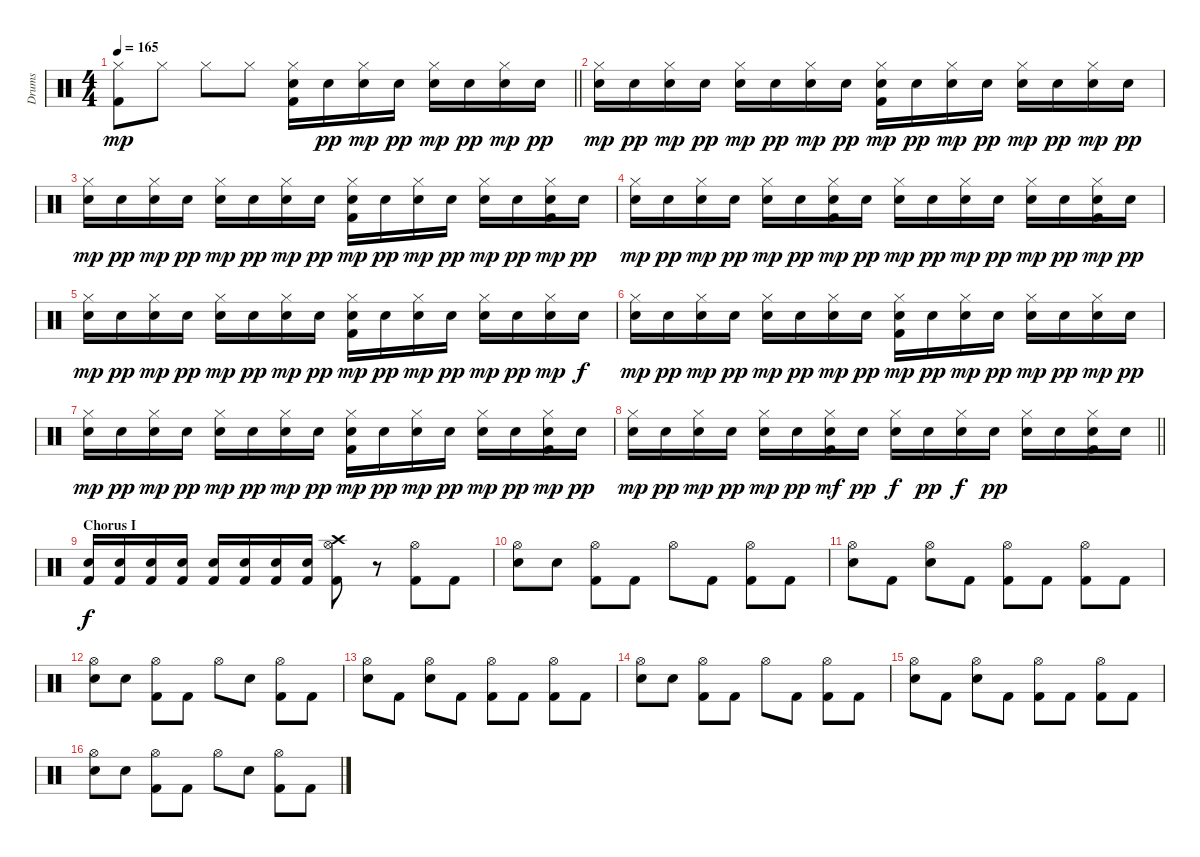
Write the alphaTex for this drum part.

\track ("Drums" "Drums") {instrument percussion}
\staff {score}
\articulation defaults
\ts (4 4)
\tempo 165
\clef neutral
\barLineRight lightlight
\ks c
("Hi-Hat (closed)" "Kick (hit) 2").8{dy mp} "Hi-Hat (closed)".8 "Hi-Hat (closed)".8 "Hi-Hat (closed)".8 ("Kick (hit) 2" "Snare (hit) 2" "Hi-Hat (closed)").16 "Snare (hit) 2".16{dy pp} ("Snare (hit) 2" "Hi-Hat (closed)").16{dy mp} "Snare (hit) 2".16{dy pp} ("Snare (hit) 2" "Hi-Hat (closed)").16{dy mp} "Snare (hit) 2".16{dy pp} ("Snare (hit) 2" "Hi-Hat (closed)").16{dy mp} "Snare (hit) 2".16{dy pp} |
("Electric Snare (hit)" "Hi-Hat (closed)").16{dy mp} "Snare (hit) 2".16{dy pp} ("Snare (hit) 2" "Hi-Hat (closed)").16{dy mp} "Snare (hit) 2".16{dy pp} ("Snare (hit) 2" "Hi-Hat (closed)").16{dy mp} "Snare (hit) 2".16{dy pp} ("Snare (hit) 2" "Hi-Hat (closed)").16{dy mp} "Snare (hit) 2".16{dy pp} ("Kick (hit) 2" "Snare (hit) 2" "Hi-Hat (closed)").16{dy mp} "Snare (hit) 2".16{dy pp} ("Snare (hit) 2" "Hi-Hat (closed)").16{dy mp} "Snare (hit) 2".16{dy pp} ("Snare (hit) 2" "Hi-Hat (closed)").16{dy mp} "Snare (hit) 2".16{dy pp} ("Snare (hit) 2" "Hi-Hat (closed)").16{dy mp} "Snare (hit) 2".16{dy pp} |
("Electric Snare (hit)" "Hi-Hat (closed)").16{dy mp} "Snare (hit) 2".16{dy pp} ("Snare (hit) 2" "Hi-Hat (closed)").16{dy mp} "Snare (hit) 2".16{dy pp} ("Electric Snare (hit)" "Hi-Hat (closed)").16{dy mp} "Snare (hit) 2".16{dy pp} ("Snare (hit) 2" "Hi-Hat (closed)").16{dy mp} "Snare (hit) 2".16{dy pp} ("Kick (hit) 2" "Snare (hit) 2" "Hi-Hat (closed)").16{dy mp} "Snare (hit) 2".16{dy pp} ("Snare (hit) 2" "Hi-Hat (closed)").16{dy mp} "Snare (hit) 2".16{dy pp} ("Snare (hit) 2" "Hi-Hat (closed)").16{dy mp} "Snare (hit) 2".16{dy pp} ("Kick (hit) 2" "Snare (hit) 2" "Hi-Hat (closed)").16{dy mp} "Snare (hit) 2".16{dy pp} |
("Electric Snare (hit)" "Hi-Hat (closed)").16{dy mp} "Snare (hit) 2".16{dy pp} ("Electric Snare (hit)" "Hi-Hat (closed)").16{dy mp} "Snare (hit) 2".16{dy pp} ("Snare (hit) 2" "Hi-Hat (closed)").16{dy mp} "Snare (hit) 2".16{dy pp} ("Kick (hit) 2" "Snare (hit) 2" "Hi-Hat (closed)").16{dy mp} "Snare (hit) 2".16{dy pp} ("Electric Snare (hit)" "Hi-Hat (closed)").16{dy mp} "Snare (hit) 2".16{dy pp} ("Electric Snare (hit)" "Hi-Hat (closed)").16{dy mp} "Snare (hit) 2".16{dy pp} ("Snare (hit) 2" "Hi-Hat (closed)").16{dy mp} "Snare (hit) 2".16{dy pp} ("Kick (hit) 2" "Snare (hit) 2" "Hi-Hat (closed)").16{dy mp} "Snare (hit) 2".16{dy pp} |
("Electric Snare (hit)" "Hi-Hat (closed)").16{dy mp} "Snare (hit) 2".16{dy pp} ("Snare (hit) 2" "Hi-Hat (closed)").16{dy mp} "Snare (hit) 2".16{dy pp} ("Electric Snare (hit)" "Hi-Hat (closed)").16{dy mp} "Snare (hit) 2".16{dy pp} ("Electric Snare (hit)" "Hi-Hat (closed)").16{dy mp} "Snare (hit) 2".16{dy pp} ("Kick (hit) 2" "Snare (hit) 2" "Hi-Hat (closed)").16{dy mp} "Snare (hit) 2".16{dy pp} ("Snare (hit) 2" "Hi-Hat (closed)").16{dy mp} "Snare (hit) 2".16{dy pp} ("Snare (hit) 2" "Hi-Hat (closed)").16{dy mp} "Snare (hit) 2".16{dy pp} ("Electric Snare (hit)" "Hi-Hat (closed)").16{dy mp} "Electric Snare (hit)".16{dy f} |
("Electric Snare (hit)" "Hi-Hat (closed)").16{dy mp} "Snare (hit) 2".16{dy pp} ("Electric Snare (hit)" "Hi-Hat (closed)").16{dy mp} "Snare (hit) 2".16{dy pp} ("Electric Snare (hit)" "Hi-Hat (closed)").16{dy mp} "Snare (hit) 2".16{dy pp} ("Snare (hit) 2" "Hi-Hat (closed)").16{dy mp} "Snare (hit) 2".16{dy pp} ("Kick (hit) 2" "Snare (hit) 2" "Hi-Hat (closed)").16{dy mp} "Snare (hit) 2".16{dy pp} ("Snare (hit) 2" "Hi-Hat (closed)").16{dy mp} "Snare (hit) 2".16{dy pp} ("Snare (hit) 2" "Hi-Hat (closed)").16{dy mp} "Snare (hit) 2".16{dy pp} ("Snare (hit) 2" "Hi-Hat (closed)").16{dy mp} "Snare (hit) 2".16{dy pp} |
("Electric Snare (hit)" "Hi-Hat (closed)").16{dy mp} "Snare (hit) 2".16{dy pp} ("Snare (hit) 2" "Hi-Hat (closed)").16{dy mp} "Snare (hit) 2".16{dy pp} ("Electric Snare (hit)" "Hi-Hat (closed)").16{dy mp} "Snare (hit) 2".16{dy pp} ("Snare (hit) 2" "Hi-Hat (closed)").16{dy mp} "Snare (hit) 2".16{dy pp} ("Kick (hit) 2" "Snare (hit) 2" "Hi-Hat (closed)").16{dy mp} "Snare (hit) 2".16{dy pp} ("Snare (hit) 2" "Hi-Hat (closed)").16{dy mp} "Snare (hit) 2".16{dy pp} ("Snare (hit) 2" "Hi-Hat (closed)").16{dy mp} "Snare (hit) 2".16{dy pp} ("Kick (hit) 2" "Snare (hit) 2" "Hi-Hat (closed)").16{dy mp} "Snare (hit) 2".16{dy pp} |
\barLineRight lightlight
("Electric Snare (hit)" "Hi-Hat (closed)").16{dy mp} "Snare (hit) 2".16{dy pp} ("Electric Snare (hit)" "Hi-Hat (closed)").16{dy mp} "Snare (hit) 2".16{dy pp} ("Snare (hit) 2" "Hi-Hat (closed)").16{dy mp} "Snare (hit) 2".16{dy pp} ("Kick (hit) 2" "Snare (hit) 2" "Hi-Hat (closed)").16{dy mf} "Snare (hit) 2".16{dy pp} ("Electric Snare (hit)" "Hi-Hat (closed)").16{dy f} "Snare (hit) 2".16{dy pp} ("Electric Snare (hit)" "Hi-Hat (closed)").16{dy f} "Snare (hit) 2".16{dy pp} ("Snare (hit) 2" "Hi-Hat (closed)").16 "Snare (hit) 2".16 ("Kick (hit) 2" "Snare (hit) 2" "Hi-Hat (closed)").16 "Snare (hit) 2".16 |
\section ("" "Chorus I")
("Kick (hit) 2" "Electric Snare (hit)").16{dy f} ("Kick (hit) 2" "Electric Snare (hit)").16 ("Kick (hit) 2" "Electric Snare (hit)").16 ("Kick (hit) 2" "Electric Snare (hit)").16 ("Kick (hit) 2" "Electric Snare (hit)").16 ("Kick (hit) 2" "Electric Snare (hit)").16 ("Kick (hit) 2" "Electric Snare (hit)").16 ("Kick (hit) 2" "Electric Snare (hit)").16 ("Crash high (hit)" "Hi-Hat (open)" "Kick (hit) 2").8 r.8 ("Hi-Hat (open)" "Kick (hit) 2").8 "Kick (hit) 2".8 |
("Hi-Hat (open)" "Electric Snare (hit)").8 "Electric Snare (hit)".8 ("Hi-Hat (open)" "Kick (hit) 2").8 "Kick (hit) 2".8 "Hi-Hat (open)".8 "Kick (hit) 2".8 ("Hi-Hat (open)" "Kick (hit) 2").8 "Kick (hit) 2".8 |
("Hi-Hat (open)" "Electric Snare (hit)").8 "Kick (hit) 2".8 ("Hi-Hat (open)" "Electric Snare (hit)").8 "Kick (hit) 2".8 ("Hi-Hat (open)" "Kick (hit) 2").8 "Kick (hit) 2".8 ("Hi-Hat (open)" "Kick (hit) 2").8 "Kick (hit) 2".8 |
("Hi-Hat (open)" "Electric Snare (hit)").8 "Electric Snare (hit)".8 ("Hi-Hat (open)" "Kick (hit) 2").8 "Kick (hit) 2".8 "Hi-Hat (open)".8 "Electric Snare (hit)".8 ("Hi-Hat (open)" "Kick (hit) 2").8 "Kick (hit) 2".8 |
("Hi-Hat (open)" "Electric Snare (hit)").8 "Kick (hit) 2".8 ("Hi-Hat (open)" "Electric Snare (hit)").8 "Kick (hit) 2".8 ("Hi-Hat (open)" "Kick (hit) 2").8 "Kick (hit) 2".8 ("Hi-Hat (open)" "Kick (hit) 2").8 "Kick (hit) 2".8 |
("Hi-Hat (open)" "Electric Snare (hit)").8 "Electric Snare (hit)".8 ("Hi-Hat (open)" "Kick (hit) 2").8 "Kick (hit) 2".8 "Hi-Hat (open)".8 "Kick (hit) 2".8 ("Hi-Hat (open)" "Kick (hit) 2").8 "Kick (hit) 2".8 |
("Hi-Hat (open)" "Electric Snare (hit)").8 "Kick (hit) 2".8 ("Hi-Hat (open)" "Electric Snare (hit)").8 "Kick (hit) 2".8 ("Hi-Hat (open)" "Kick (hit) 2").8 "Kick (hit) 2".8 ("Hi-Hat (open)" "Kick (hit) 2").8 "Kick (hit) 2".8 |
("Hi-Hat (open)" "Electric Snare (hit)").8 "Electric Snare (hit)".8 ("Hi-Hat (open)" "Kick (hit) 2").8 "Kick (hit) 2".8 "Hi-Hat (open)".8 "Electric Snare (hit)".8 ("Hi-Hat (open)" "Kick (hit) 2").8 "Kick (hit) 2".8
